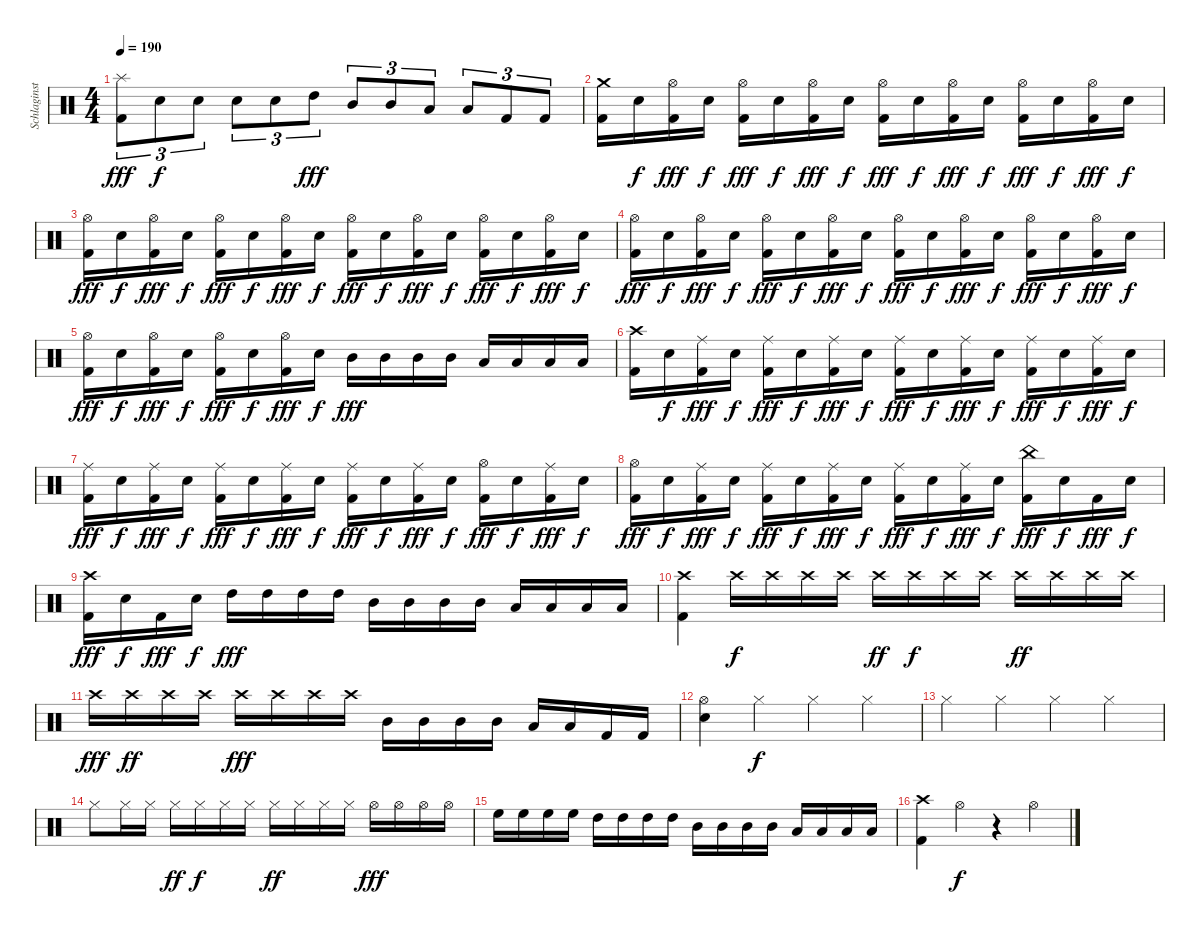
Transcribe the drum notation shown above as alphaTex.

\track ("Schlaginstrumente - Auswahl" "Schlaginst") {instrument percussion}
\staff {score}
\articulation defaults
\ts (4 4)
\tempo 190
\clef neutral
\ks c
("Splash (hit)" "Kick (hit) 2").8{tu (3 2) dy fff} "Snare (hit) 2".8{tu (3 2) dy f} "Snare (hit) 2".8{tu (3 2)} "Snare (hit) 2".8{tu (3 2)} "Snare (hit) 2".8{tu (3 2)} "High Tom (hit)".8{tu (3 2) dy fff} "Mid Tom (hit)".8{tu (3 2)} "Mid Tom (hit)".8{tu (3 2)} "Low Tom (hit)".8{tu (3 2)} "Low Tom (hit)".8{tu (3 2)} "Kick (hit) 2".8{tu (3 2)} "Kick (hit) 2".8{tu (3 2)} |
("Crash medium (hit)" "Kick (hit) 2").16 "Snare (hit) 2".16{dy f} ("Hi-Hat (open)" "Kick (hit) 2").16{dy fff} "Snare (hit) 2".16{dy f} ("Hi-Hat (open)" "Kick (hit) 2").16{dy fff} "Snare (hit) 2".16{dy f} ("Hi-Hat (open)" "Kick (hit) 2").16{dy fff} "Snare (hit) 2".16{dy f} ("Hi-Hat (open)" "Kick (hit) 2").16{dy fff} "Snare (hit) 2".16{dy f} ("Hi-Hat (open)" "Kick (hit) 2").16{dy fff} "Snare (hit) 2".16{dy f} ("Hi-Hat (open)" "Kick (hit) 2").16{dy fff} "Snare (hit) 2".16{dy f} ("Hi-Hat (open)" "Kick (hit) 2").16{dy fff} "Snare (hit) 2".16{dy f} |
("Hi-Hat (open)" "Kick (hit) 2").16{dy fff} "Snare (hit) 2".16{dy f} ("Hi-Hat (open)" "Kick (hit) 2").16{dy fff} "Snare (hit) 2".16{dy f} ("Hi-Hat (open)" "Kick (hit) 2").16{dy fff} "Snare (hit) 2".16{dy f} ("Hi-Hat (open)" "Kick (hit) 2").16{dy fff} "Snare (hit) 2".16{dy f} ("Hi-Hat (open)" "Kick (hit) 2").16{dy fff} "Snare (hit) 2".16{dy f} ("Hi-Hat (open)" "Kick (hit) 2").16{dy fff} "Snare (hit) 2".16{dy f} ("Hi-Hat (open)" "Kick (hit) 2").16{dy fff} "Snare (hit) 2".16{dy f} ("Hi-Hat (open)" "Kick (hit) 2").16{dy fff} "Snare (hit) 2".16{dy f} |
("Hi-Hat (open)" "Kick (hit) 2").16{dy fff} "Snare (hit) 2".16{dy f} ("Hi-Hat (open)" "Kick (hit) 2").16{dy fff} "Snare (hit) 2".16{dy f} ("Hi-Hat (open)" "Kick (hit) 2").16{dy fff} "Snare (hit) 2".16{dy f} ("Hi-Hat (open)" "Kick (hit) 2").16{dy fff} "Snare (hit) 2".16{dy f} ("Hi-Hat (open)" "Kick (hit) 2").16{dy fff} "Snare (hit) 2".16{dy f} ("Hi-Hat (open)" "Kick (hit) 2").16{dy fff} "Snare (hit) 2".16{dy f} ("Hi-Hat (open)" "Kick (hit) 2").16{dy fff} "Snare (hit) 2".16{dy f} ("Hi-Hat (open)" "Kick (hit) 2").16{dy fff} "Snare (hit) 2".16{dy f} |
("Hi-Hat (open)" "Kick (hit) 2").16{dy fff} "Snare (hit) 2".16{dy f} ("Hi-Hat (open)" "Kick (hit) 2").16{dy fff} "Snare (hit) 2".16{dy f} ("Hi-Hat (open)" "Kick (hit) 2").16{dy fff} "Snare (hit) 2".16{dy f} ("Hi-Hat (open)" "Kick (hit) 2").16{dy fff} "Snare (hit) 2".16{dy f} "Mid Tom (hit)".16{dy fff} "Mid Tom (hit)".16 "Mid Tom (hit)".16 "Mid Tom (hit)".16 "Low Tom (hit)".16 "Low Tom (hit)".16 "Low Tom (hit)".16 "Low Tom (hit)".16 |
("Crash high (hit)" "Kick (hit) 2").16 "Snare (hit) 2".16{dy f} ("Ride (middle)" "Kick (hit) 2").16{dy fff} "Snare (hit) 2".16{dy f} ("Ride (middle)" "Kick (hit) 2").16{dy fff} "Snare (hit) 2".16{dy f} ("Ride (middle)" "Kick (hit) 2").16{dy fff} "Snare (hit) 2".16{dy f} ("Ride (middle)" "Kick (hit) 2").16{dy fff} "Snare (hit) 2".16{dy f} ("Ride (middle)" "Kick (hit) 2").16{dy fff} "Snare (hit) 2".16{dy f} ("Ride (middle)" "Kick (hit) 2").16{dy fff} "Snare (hit) 2".16{dy f} ("Ride (middle)" "Kick (hit) 2").16{dy fff} "Snare (hit) 2".16{dy f} |
("Ride (middle)" "Kick (hit) 2").16{dy fff} "Snare (hit) 2".16{dy f} ("Ride (middle)" "Kick (hit) 2").16{dy fff} "Snare (hit) 2".16{dy f} ("Ride (middle)" "Kick (hit) 2").16{dy fff} "Snare (hit) 2".16{dy f} ("Ride (middle)" "Kick (hit) 2").16{dy fff} "Snare (hit) 2".16{dy f} ("Ride (middle)" "Kick (hit) 2").16{dy fff} "Snare (hit) 2".16{dy f} ("Ride (middle)" "Kick (hit) 2").16{dy fff} "Snare (hit) 2".16{dy f} ("Hi-Hat (open)" "Kick (hit) 2").16{dy fff} "Snare (hit) 2".16{dy f} ("Ride (middle)" "Kick (hit) 2").16{dy fff} "Snare (hit) 2".16{dy f} |
("Hi-Hat (open)" "Kick (hit) 2").16{dy fff} "Snare (hit) 2".16{dy f} ("Ride (middle)" "Kick (hit) 2").16{dy fff} "Snare (hit) 2".16{dy f} ("Ride (middle)" "Kick (hit) 2").16{dy fff} "Snare (hit) 2".16{dy f} ("Ride (middle)" "Kick (hit) 2").16{dy fff} "Snare (hit) 2".16{dy f} ("Ride (middle)" "Kick (hit) 2").16{dy fff} "Snare (hit) 2".16{dy f} ("Ride (middle)" "Kick (hit) 2").16{dy fff} "Snare (hit) 2".16{dy f} ("China (hit)" "Kick (hit) 2").16{dy fff} "Snare (hit) 2".16{dy f} "Kick (hit) 2".16{dy fff} "Snare (hit) 2".16{dy f} |
("Crash high (hit)" "Kick (hit) 2").16{dy fff} "Snare (hit) 2".16{dy f} "Kick (hit) 2".16{dy fff} "Snare (hit) 2".16{dy f} "High Tom (hit)".16{dy fff} "High Tom (hit)".16 "High Tom (hit)".16 "High Tom (hit)".16 "Mid Tom (hit)".16 "Mid Tom (hit)".16 "Mid Tom (hit)".16 "Mid Tom (hit)".16 "Low Tom (hit)".16 "Low Tom (hit)".16 "Low Tom (hit)".16 "Low Tom (hit)".16 |
("Crash high (hit)" "Kick (hit) 2").4 "Crash high (hit)".16{dy f} "Crash high (hit)".16 "Crash high (hit)".16 "Crash high (hit)".16 "Crash high (hit)".16{dy ff} "Crash high (hit)".16{dy f} "Crash high (hit)".16 "Crash high (hit)".16 "Crash high (hit)".16{dy ff} "Crash high (hit)".16 "Crash high (hit)".16 "Crash high (hit)".16 |
"Crash high (hit)".16{dy fff} "Crash high (hit)".16{dy ff} "Crash high (hit)".16 "Crash high (hit)".16 "Crash high (hit)".16{dy fff} "Crash high (hit)".16 "Crash high (hit)".16 "Crash high (hit)".16 "Mid Tom (hit)".16 "Mid Tom (hit)".16 "Mid Tom (hit)".16 "Mid Tom (hit)".16 "Low Tom (hit)".16 "Low Tom (hit)".16 "Kick (hit) 2".16 "Kick (hit) 2".16 |
("Hi-Hat (open)" "Snare (hit) 2").4 "Hi-Hat (closed)".4{dy f} "Hi-Hat (closed)".4 "Hi-Hat (closed)".4 |
"Hi-Hat (closed)".4 "Hi-Hat (closed)".4 "Hi-Hat (closed)".4 "Hi-Hat (closed)".4 |
"Hi-Hat (closed)".8 "Hi-Hat (closed)".16 "Hi-Hat (closed)".16 "Hi-Hat (closed)".16{dy ff} "Hi-Hat (closed)".16{dy f} "Hi-Hat (closed)".16 "Hi-Hat (closed)".16 "Hi-Hat (closed)".16{dy ff} "Hi-Hat (closed)".16 "Hi-Hat (closed)".16 "Hi-Hat (closed)".16 "Hi-Hat (open)".16{dy fff} "Hi-Hat (open)".16 "Hi-Hat (open)".16 "Hi-Hat (open)".16 |
"High Floor Tom (hit)".16 "High Floor Tom (hit)".16 "High Floor Tom (hit)".16 "High Floor Tom (hit)".16 "High Tom (hit)".16 "High Tom (hit)".16 "High Tom (hit)".16 "High Tom (hit)".16 "Mid Tom (hit)".16 "Mid Tom (hit)".16 "Mid Tom (hit)".16 "Mid Tom (hit)".16 "Low Tom (hit)".16 "Low Tom (hit)".16 "Low Tom (hit)".16 "Low Tom (hit)".16 |
("Crash high (hit)" "Kick (hit) 2").4 "Hi-Hat (open)".4{dy f} r.4 "Hi-Hat (open)".4
